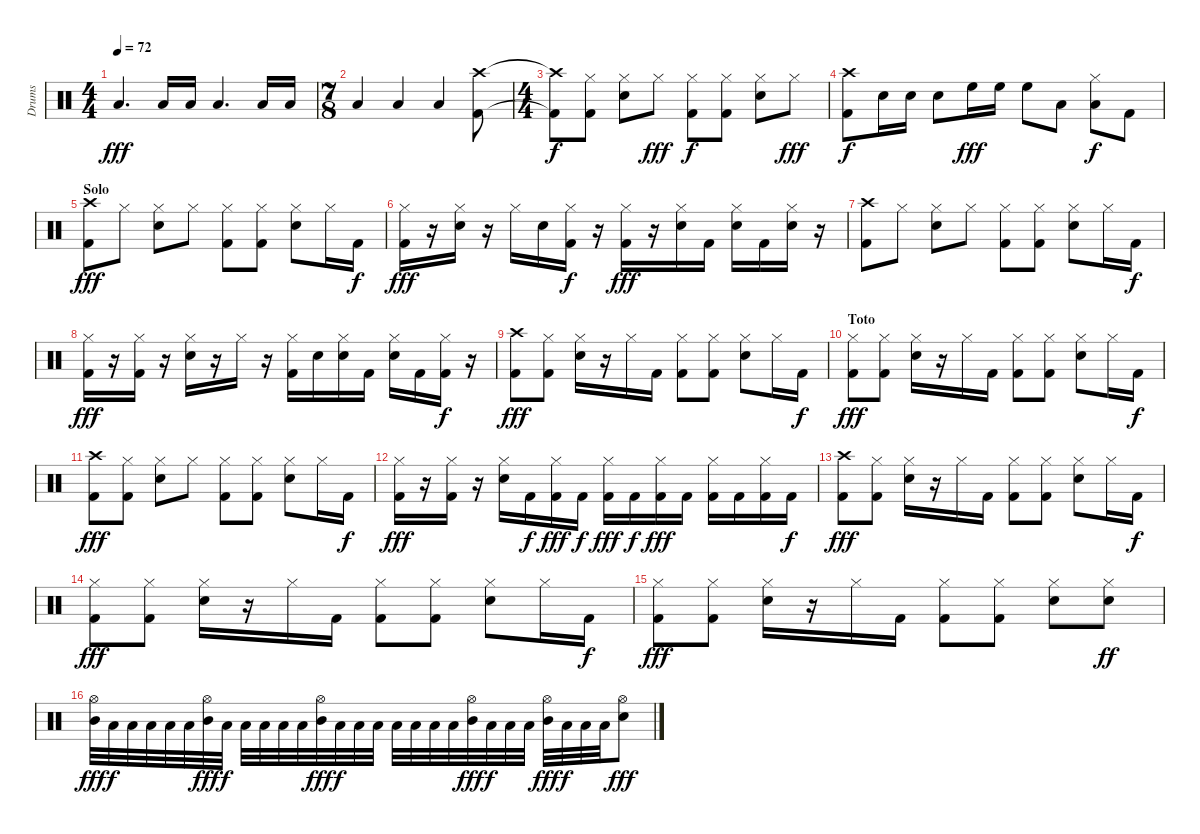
\track ("Drums" "Drums") {instrument percussion}
\staff {score}
\articulation defaults
\ts (4 4)
\tempo 72
\clef neutral
\ks c "Low Floor Tom (hit)".4{d dy fff} "Low Floor Tom (hit)".16 "Low Floor Tom (hit)".16 "Low Floor Tom (hit)".4{d} "Low Floor Tom (hit)".16 "Low Floor Tom (hit)".16
|
\ts (7 8)
"Low Floor Tom (hit)".4 "Low Floor Tom (hit)".4 "Low Floor Tom (hit)".4 ("Crash high (hit)" "Kick (hit) 2").8 |
\ts (4 4)
("Crash high (hit)"{t} "Kick (hit) 2"{t}).8{dy f} ("Hi-Hat (closed)" "Kick (hit) 2").8 ("Hi-Hat (closed)" "Snare (hit) 2").8 "Hi-Hat (closed)".8{dy fff} ("Hi-Hat (closed)" "Kick (hit) 2").8{dy f} ("Hi-Hat (closed)" "Kick (hit) 2").8 ("Hi-Hat (closed)" "Snare (hit) 2").8 "Hi-Hat (closed)".8{dy fff} |
("Crash high (hit)" "Kick (hit) 2").8{dy f} "Snare (hit) 2".16 "Snare (hit) 2".16 "Snare (hit) 2".8 "High Floor Tom (hit)".16{dy fff} "High Floor Tom (hit)".16 "High Floor Tom (hit)".8 "Low Floor Tom (hit)".8 ("Hi-Hat (closed)" "Low Floor Tom (hit)").8{dy f} "Kick (hit) 2".8 |
\section ("" "Solo")
("Crash high (hit)" "Kick (hit) 2").8{dy fff} "Hi-Hat (closed)".8 ("Hi-Hat (closed)" "Snare (hit) 2").8 "Hi-Hat (closed)".8 ("Hi-Hat (closed)" "Kick (hit) 2").8 ("Hi-Hat (closed)" "Kick (hit) 2").8 ("Hi-Hat (closed)" "Snare (hit) 2").8 "Hi-Hat (closed)".16 "Kick (hit) 2".16{dy f} |
("Hi-Hat (closed)" "Kick (hit) 2").16{dy fff} r.16 ("Hi-Hat (closed)" "Snare (hit) 2").16 r.16 "Hi-Hat (closed)".16 "Snare (hit) 2".16 ("Hi-Hat (closed)" "Kick (hit) 2").16{dy f} r.16 ("Hi-Hat (closed)" "Kick (hit) 2").16{dy fff} r.16 ("Hi-Hat (closed)" "Snare (hit) 2").16 "Kick (hit) 2".16 ("Hi-Hat (closed)" "Snare (hit) 2").16 "Kick (hit) 2".16 ("Hi-Hat (closed)" "Snare (hit) 2").16 r.16 |
("Crash high (hit)" "Kick (hit) 2").8 "Hi-Hat (closed)".8 ("Hi-Hat (closed)" "Snare (hit) 2").8 "Hi-Hat (closed)".8 ("Hi-Hat (closed)" "Kick (hit) 2").8 ("Hi-Hat (closed)" "Kick (hit) 2").8 ("Hi-Hat (closed)" "Snare (hit) 2").8 "Hi-Hat (closed)".16 "Kick (hit) 2".16{dy f} |
("Hi-Hat (closed)" "Kick (hit) 2").16{dy fff} r.16 ("Hi-Hat (closed)" "Kick (hit) 2").16 r.16 ("Hi-Hat (closed)" "Snare (hit) 2").16 r.16 "Hi-Hat (closed)".16 r.16 ("Hi-Hat (closed)" "Kick (hit) 2").16 "Snare (hit) 2".16 ("Hi-Hat (closed)" "Snare (hit) 2").16 "Kick (hit) 2".16 ("Hi-Hat (closed)" "Snare (hit) 2").16 "Kick (hit) 2".16 ("Hi-Hat (closed)" "Kick (hit) 2").16{dy f} r.16 |
("Crash high (hit)" "Kick (hit) 2").8{dy fff} ("Hi-Hat (closed)" "Kick (hit) 2").8 ("Hi-Hat (closed)" "Snare (hit) 2").16 r.16 "Hi-Hat (closed)".16 "Kick (hit) 2".16 ("Hi-Hat (closed)" "Kick (hit) 2").8 ("Hi-Hat (closed)" "Kick (hit) 2").8 ("Hi-Hat (closed)" "Snare (hit) 2").8 "Hi-Hat (closed)".16 "Kick (hit) 2".16{dy f} |
\section ("" "Toto")
("Hi-Hat (closed)" "Kick (hit) 2").8{dy fff} ("Hi-Hat (closed)" "Kick (hit) 2").8 ("Hi-Hat (closed)" "Snare (hit) 2").16 r.16 "Hi-Hat (closed)".16 "Kick (hit) 2".16 ("Hi-Hat (closed)" "Kick (hit) 2").8 ("Hi-Hat (closed)" "Kick (hit) 2").8 ("Hi-Hat (closed)" "Snare (hit) 2").8 "Hi-Hat (closed)".16 "Kick (hit) 2".16{dy f} |
("Crash high (hit)" "Kick (hit) 2").8{dy fff} ("Hi-Hat (closed)" "Kick (hit) 2").8 ("Hi-Hat (closed)" "Snare (hit) 2").8 "Hi-Hat (closed)".8 ("Hi-Hat (closed)" "Kick (hit) 2").8 ("Hi-Hat (closed)" "Kick (hit) 2").8 ("Hi-Hat (closed)" "Snare (hit) 2").8 "Hi-Hat (closed)".16 "Kick (hit) 2".16{dy f} |
("Hi-Hat (closed)" "Kick (hit) 2").16{dy fff} r.16 ("Hi-Hat (closed)" "Kick (hit) 2").16 r.16 ("Hi-Hat (closed)" "Snare (hit) 2").16 "Kick (hit) 2".16{dy f} ("Hi-Hat (closed)" "Kick (hit) 2").16{dy fff} "Kick (hit) 2".16{dy f} ("Hi-Hat (closed)" "Kick (hit) 2").16{dy fff} "Kick (hit) 2".16{dy f} ("Hi-Hat (closed)" "Kick (hit) 2").16{dy fff} "Kick (hit) 2".16 ("Hi-Hat (closed)" "Kick (hit) 2").16 "Kick (hit) 2".16 ("Hi-Hat (closed)" "Kick (hit) 2").16 "Kick (hit) 2".16{dy f} |
("Crash high (hit)" "Kick (hit) 2").8{dy fff} ("Hi-Hat (closed)" "Kick (hit) 2").8 ("Hi-Hat (closed)" "Snare (hit) 2").16 r.16 "Hi-Hat (closed)".16 "Kick (hit) 2".16 ("Hi-Hat (closed)" "Kick (hit) 2").8 ("Hi-Hat (closed)" "Kick (hit) 2").8 ("Hi-Hat (closed)" "Snare (hit) 2").8 "Hi-Hat (closed)".16 "Kick (hit) 2".16{dy f} |
("Hi-Hat (closed)" "Kick (hit) 2").8{dy fff} ("Hi-Hat (closed)" "Kick (hit) 2").8 ("Hi-Hat (closed)" "Snare (hit) 2").16 r.16 "Hi-Hat (closed)".16 "Kick (hit) 2".16 ("Hi-Hat (closed)" "Kick (hit) 2").8 ("Hi-Hat (closed)" "Kick (hit) 2").8 ("Hi-Hat (closed)" "Snare (hit) 2").8 "Hi-Hat (closed)".16 "Kick (hit) 2".16{dy f} |
("Hi-Hat (closed)" "Kick (hit) 2").8{dy fff} ("Hi-Hat (closed)" "Kick (hit) 2").8 ("Hi-Hat (closed)" "Snare (hit) 2").16 r.16 "Hi-Hat (closed)".16 "Kick (hit) 2".16 ("Hi-Hat (closed)" "Kick (hit) 2").8 ("Hi-Hat (closed)" "Kick (hit) 2").8 ("Hi-Hat (closed)" "Snare (hit) 2").8 ("Hi-Hat (closed)" "Snare (hit) 2").8{dy ff} |
("Hi-Hat (open)" "Mid Tom (hit)").32{dy fff} "Low Tom (hit)".32{dy f} "Low Tom (hit)".32 "Low Tom (hit)".32 "Low Tom (hit)".32 "Low Tom (hit)".32 ("Hi-Hat (open)" "Mid Tom (hit)").32{dy fff} "Low Tom (hit)".32{dy f} "Low Tom (hit)".32 "Low Tom (hit)".32 "Low Tom (hit)".32 "Low Tom (hit)".32 ("Hi-Hat (open)" "Mid Tom (hit)").32{dy fff} "Low Tom (hit)".32{dy f} "Low Tom (hit)".32 "Low Tom (hit)".32 "Low Tom (hit)".32 "Low Tom (hit)".32 "Low Tom (hit)".32 "Low Tom (hit)".32 ("Hi-Hat (open)" "Mid Tom (hit)").32{dy fff} "Low Tom (hit)".32{dy f} "Low Tom (hit)".32 "Low Tom (hit)".32 ("Hi-Hat (open)" "Mid Tom (hit)").32{dy fff} "Low Tom (hit)".32{dy f} "Low Tom (hit)".32 "Low Tom (hit)".32 ("Hi-Hat (open)" "Snare (hit) 2").8{dy fff}
